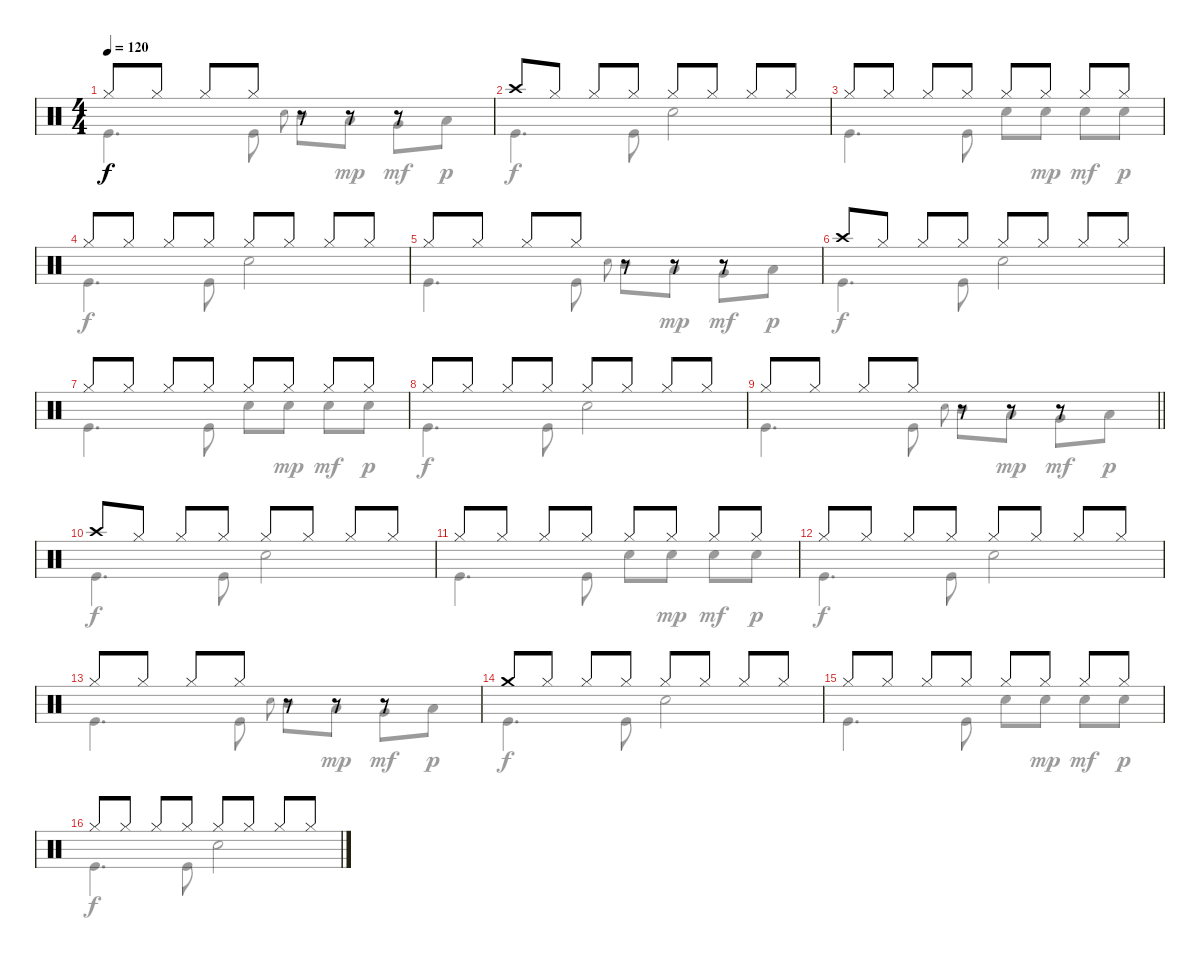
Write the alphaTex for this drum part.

\track "" {instrument percussion}
\staff {score}
\articulation defaults
\voice
\ts (4 4)
\tempo 120
\clef neutral
\ks c "Hi-Hat (closed)".8{dy f} "Hi-Hat (closed)".8 "Hi-Hat (closed)".8 "Hi-Hat (closed)".8
r.8 r.8 r.8 |
"Crash high (hit)".8 "Hi-Hat (closed)".8 "Hi-Hat (closed)".8 "Hi-Hat (closed)".8 "Hi-Hat (closed)".8 "Hi-Hat (closed)".8 "Hi-Hat (closed)".8 "Hi-Hat (closed)".8 |
"Hi-Hat (closed)".8 "Hi-Hat (closed)".8 "Hi-Hat (closed)".8 "Hi-Hat (closed)".8 "Hi-Hat (closed)".8 "Hi-Hat (closed)".8 "Hi-Hat (closed)".8 "Hi-Hat (closed)".8 |
"Hi-Hat (closed)".8 "Hi-Hat (closed)".8 "Hi-Hat (closed)".8 "Hi-Hat (closed)".8 "Hi-Hat (closed)".8 "Hi-Hat (closed)".8 "Hi-Hat (closed)".8 "Hi-Hat (closed)".8 |
"Hi-Hat (closed)".8 "Hi-Hat (closed)".8 "Hi-Hat (closed)".8 "Hi-Hat (closed)".8 r.8 r.8 r.8 |
"Crash high (hit)".8 "Hi-Hat (closed)".8 "Hi-Hat (closed)".8 "Hi-Hat (closed)".8 "Hi-Hat (closed)".8 "Hi-Hat (closed)".8 "Hi-Hat (closed)".8 "Hi-Hat (closed)".8 |
"Hi-Hat (closed)".8 "Hi-Hat (closed)".8 "Hi-Hat (closed)".8 "Hi-Hat (closed)".8 "Hi-Hat (closed)".8 "Hi-Hat (closed)".8 "Hi-Hat (closed)".8 "Hi-Hat (closed)".8 |
"Hi-Hat (closed)".8 "Hi-Hat (closed)".8 "Hi-Hat (closed)".8 "Hi-Hat (closed)".8 "Hi-Hat (closed)".8 "Hi-Hat (closed)".8 "Hi-Hat (closed)".8 "Hi-Hat (closed)".8 |
\barLineRight lightlight "Hi-Hat (closed)".8 "Hi-Hat (closed)".8 "Hi-Hat (closed)".8 "Hi-Hat (closed)".8
r.8 r.8 r.8 |
"Crash high (hit)".8 "Hi-Hat (closed)".8 "Hi-Hat (closed)".8 "Hi-Hat (closed)".8 "Hi-Hat (closed)".8 "Hi-Hat (closed)".8 "Hi-Hat (closed)".8 "Hi-Hat (closed)".8 |
"Hi-Hat (closed)".8 "Hi-Hat (closed)".8 "Hi-Hat (closed)".8 "Hi-Hat (closed)".8 "Hi-Hat (closed)".8 "Hi-Hat (closed)".8 "Hi-Hat (closed)".8 "Hi-Hat (closed)".8 |
"Hi-Hat (closed)".8 "Hi-Hat (closed)".8 "Hi-Hat (closed)".8 "Hi-Hat (closed)".8 "Hi-Hat (closed)".8 "Hi-Hat (closed)".8 "Hi-Hat (closed)".8 "Hi-Hat (closed)".8 |
"Hi-Hat (closed)".8 "Hi-Hat (closed)".8 "Hi-Hat (closed)".8 "Hi-Hat (closed)".8 r.8 r.8 r.8 |
"Crash medium (hit)".8 "Hi-Hat (closed)".8 "Hi-Hat (closed)".8 "Hi-Hat (closed)".8 "Hi-Hat (closed)".8 "Hi-Hat (closed)".8 "Hi-Hat (closed)".8 "Hi-Hat (closed)".8 |
"Hi-Hat (closed)".8 "Hi-Hat (closed)".8 "Hi-Hat (closed)".8 "Hi-Hat (closed)".8 "Hi-Hat (closed)".8 "Hi-Hat (closed)".8 "Hi-Hat (closed)".8 "Hi-Hat (closed)".8 |
"Hi-Hat (closed)".8 "Hi-Hat (closed)".8 "Hi-Hat (closed)".8 "Hi-Hat (closed)".8 "Hi-Hat (closed)".8 "Hi-Hat (closed)".8 "Hi-Hat (closed)".8 "Hi-Hat (closed)".8
\voice
\clef neutral
\ottava regular
\simile none
\ks c "Kick (hit)".4{d dy f} "Kick (hit)".8 "Snare (hit) 2".8{gr onbeat} "Mid Tom (hit)".8 "Low Tom (hit)".8{dy mp} "Very Low Tom (hit)".8{dy mf} "Low Floor Tom (hit)".8{dy p}
|
"Kick (hit)".4{d dy f} "Kick (hit)".8 "Snare (hit) 2".2 |
"Kick (hit)".4{d} "Kick (hit)".8 "Snare (hit) 2".8 "Snare (hit) 2".8{dy mp} "Snare (hit) 2".8{dy mf} "Snare (hit) 2".8{dy p} |
"Kick (hit)".4{d dy f} "Kick (hit)".8 "Snare (hit) 2".2 |
"Kick (hit)".4{d} "Kick (hit)".8 "Snare (hit) 2".8{gr onbeat} "Mid Tom (hit)".8 "Low Tom (hit)".8{dy mp} "Very Low Tom (hit)".8{dy mf} "Low Floor Tom (hit)".8{dy p} |
"Kick (hit)".4{d dy f} "Kick (hit)".8 "Snare (hit) 2".2 |
"Kick (hit)".4{d} "Kick (hit)".8 "Snare (hit) 2".8 "Snare (hit) 2".8{dy mp} "Snare (hit) 2".8{dy mf} "Snare (hit) 2".8{dy p} |
"Kick (hit)".4{d dy f} "Kick (hit)".8 "Snare (hit) 2".2 |
\barLineRight lightlight "Kick (hit)".4{d} "Kick (hit)".8 "Snare (hit) 2".8{gr onbeat} "Mid Tom (hit)".8 "Low Tom (hit)".8{dy mp} "Very Low Tom (hit)".8{dy mf} "Low Floor Tom (hit)".8{dy p}
|
"Kick (hit)".4{d dy f} "Kick (hit)".8 "Snare (hit) 2".2 |
"Kick (hit)".4{d} "Kick (hit)".8 "Snare (hit) 2".8 "Snare (hit) 2".8{dy mp} "Snare (hit) 2".8{dy mf} "Snare (hit) 2".8{dy p} |
"Kick (hit)".4{d dy f} "Kick (hit)".8 "Snare (hit) 2".2 |
"Kick (hit)".4{d} "Kick (hit)".8 "Snare (hit) 2".8{gr onbeat} "Mid Tom (hit)".8 "Low Tom (hit)".8{dy mp} "Very Low Tom (hit)".8{dy mf} "Low Floor Tom (hit)".8{dy p} |
"Kick (hit)".4{d dy f} "Kick (hit)".8 "Snare (hit) 2".2 |
"Kick (hit)".4{d} "Kick (hit)".8 "Snare (hit) 2".8 "Snare (hit) 2".8{dy mp} "Snare (hit) 2".8{dy mf} "Snare (hit) 2".8{dy p} |
"Kick (hit)".4{d dy f} "Kick (hit)".8 "Snare (hit) 2".2
